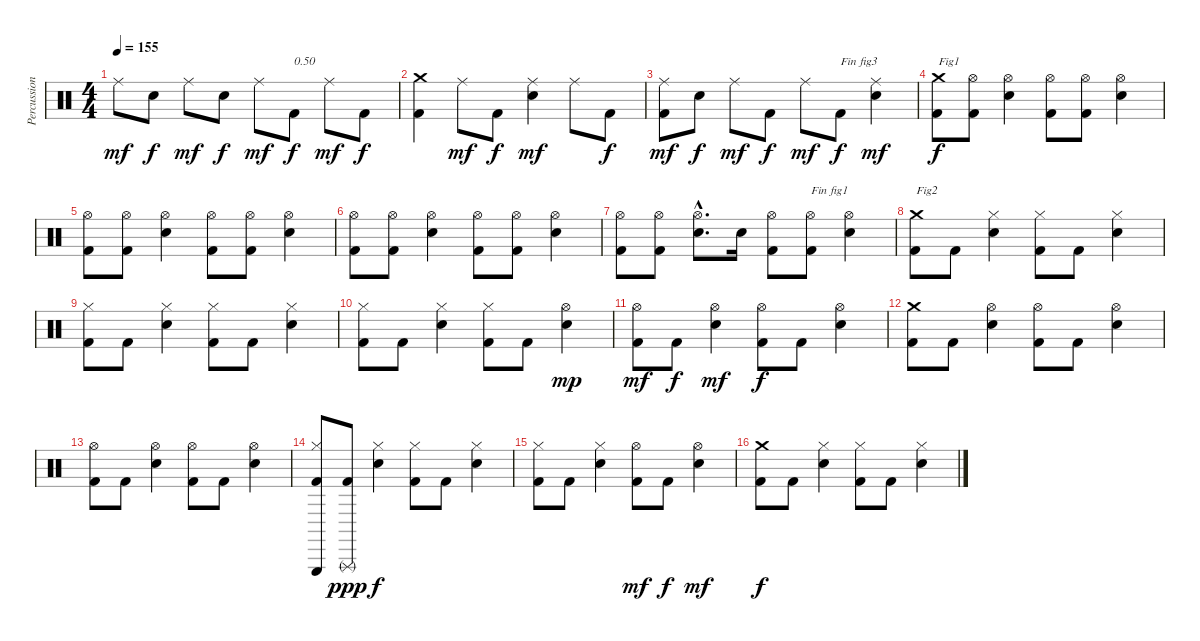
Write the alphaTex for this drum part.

\track ("Percussions" "Percussion") {instrument percussion}
\staff {score}
\articulation defaults
\ts (4 4)
\tempo 155
\clef neutral
\ks c "Ride (middle)".8{dy mf} "Electric Snare (hit)".8{dy f} "Ride (middle)".8{dy mf} "Electric Snare (hit)".8{dy f} "Ride (middle)".8{dy mf} "Kick (hit) 2".8{txt "0.50" dy f} "Ride (middle)".8{dy mf} "Kick (hit) 2".8{dy f}
|
("Kick (hit) 2" "Crash medium (hit)").4 "Ride (middle)".8{dy mf} "Kick (hit) 2".8{dy f} ("Electric Snare (hit)" "Ride (middle)").4{dy mf} "Ride (middle)".8 "Kick (hit) 2".8{dy f} |
("Kick (hit) 2" "Ride (middle)").8{dy mf} "Electric Snare (hit)".8{dy f} "Ride (middle)".8{dy mf} "Kick (hit) 2".8{dy f} "Ride (middle)".8{dy mf} "Kick (hit) 2".8{txt "Fin fig3" dy f} ("Electric Snare (hit)" "Ride (middle)").4{dy mf} |
("Kick (hit) 2" "Crash medium (hit)").8{txt "Fig1" dy f} ("Kick (hit) 2" "Hi-Hat (open)").8 ("Electric Snare (hit)" "Hi-Hat (open)").4 ("Kick (hit) 2" "Hi-Hat (open)").8 ("Kick (hit) 2" "Hi-Hat (open)").8 ("Electric Snare (hit)" "Hi-Hat (open)").4 |
("Kick (hit) 2" "Hi-Hat (open)").8 ("Kick (hit) 2" "Hi-Hat (open)").8 ("Electric Snare (hit)" "Hi-Hat (open)").4 ("Kick (hit) 2" "Hi-Hat (open)").8 ("Kick (hit) 2" "Hi-Hat (open)").8 ("Electric Snare (hit)" "Hi-Hat (open)").4 |
("Kick (hit) 2" "Hi-Hat (open)").8 ("Kick (hit) 2" "Hi-Hat (open)").8 ("Electric Snare (hit)" "Hi-Hat (open)").4 ("Kick (hit) 2" "Hi-Hat (open)").8 ("Kick (hit) 2" "Hi-Hat (open)").8 ("Electric Snare (hit)" "Hi-Hat (open)").4 |
("Kick (hit) 2" "Hi-Hat (open)").8 ("Kick (hit) 2" "Hi-Hat (open)").8 ("Electric Snare (hit)"{hac} "Hi-Hat (open)"{hac}).8{d} "Electric Snare (hit)".16 ("Kick (hit) 2" "Hi-Hat (open)").8 ("Kick (hit) 2" "Hi-Hat (open)").8{txt "Fin fig1"} ("Electric Snare (hit)" "Hi-Hat (open)").4 |
("Kick (hit) 2" "Crash medium (hit)").8{txt "Fig2"} "Kick (hit) 2".8 ("Electric Snare (hit)" "Hi-Hat (closed)").4 ("Kick (hit) 2" "Hi-Hat (closed)").8 "Kick (hit) 2".8 ("Electric Snare (hit)" "Hi-Hat (closed)").4 |
("Kick (hit) 2" "Hi-Hat (closed)").8 "Kick (hit) 2".8 ("Electric Snare (hit)" "Hi-Hat (closed)").4 ("Kick (hit) 2" "Hi-Hat (closed)").8 "Kick (hit) 2".8 ("Electric Snare (hit)" "Hi-Hat (closed)").4 |
("Kick (hit) 2" "Hi-Hat (closed)").8 "Kick (hit) 2".8 ("Electric Snare (hit)" "Hi-Hat (closed)").4 ("Kick (hit) 2" "Hi-Hat (closed)").8 "Kick (hit) 2".8 ("Electric Snare (hit)" "Hi-Hat (open)").4{dy mp} |
("Kick (hit) 2" "Hi-Hat (open)").8{dy mf} "Kick (hit) 2".8{dy f} ("Electric Snare (hit)" "Hi-Hat (open)").4{dy mf} ("Kick (hit) 2" "Hi-Hat (open)").8{dy f} "Kick (hit) 2".8 ("Electric Snare (hit)" "Hi-Hat (open)").4 |
("Kick (hit) 2" "Crash medium (hit)").8 "Kick (hit) 2".8 ("Electric Snare (hit)" "Hi-Hat (open)").4 ("Kick (hit) 2" "Hi-Hat (open)").8 "Kick (hit) 2".8 ("Electric Snare (hit)" "Hi-Hat (open)").4 |
("Kick (hit) 2" "Hi-Hat (open)").8 "Kick (hit) 2".8 ("Electric Snare (hit)" "Hi-Hat (open)").4 ("Kick (hit) 2" "Hi-Hat (open)").8 "Kick (hit) 2".8 ("Electric Snare (hit)" "Hi-Hat (open)").4 |
("Kick (hit) 2" "Hi-Hat (closed)" "Triangle (hit)").8 ("Kick (hit) 2" "Triangle (rnute)").8{dy ppp} ("Electric Snare (hit)" "Hi-Hat (closed)").4{dy f} ("Kick (hit) 2" "Hi-Hat (closed)").8 "Kick (hit) 2".8 ("Electric Snare (hit)" "Hi-Hat (closed)").4 |
("Kick (hit) 2" "Hi-Hat (closed)").8 "Kick (hit) 2".8 ("Electric Snare (hit)" "Hi-Hat (closed)").4 ("Kick (hit) 2" "Hi-Hat (open)").8{dy mf} "Kick (hit) 2".8{dy f} ("Electric Snare (hit)" "Hi-Hat (open)").4{dy mf} |
("Kick (hit) 2" "Crash medium (hit)").8{dy f} "Kick (hit) 2".8 ("Electric Snare (hit)" "Hi-Hat (closed)").4 ("Kick (hit) 2" "Hi-Hat (closed)").8 "Kick (hit) 2".8 ("Electric Snare (hit)" "Hi-Hat (closed)").4
